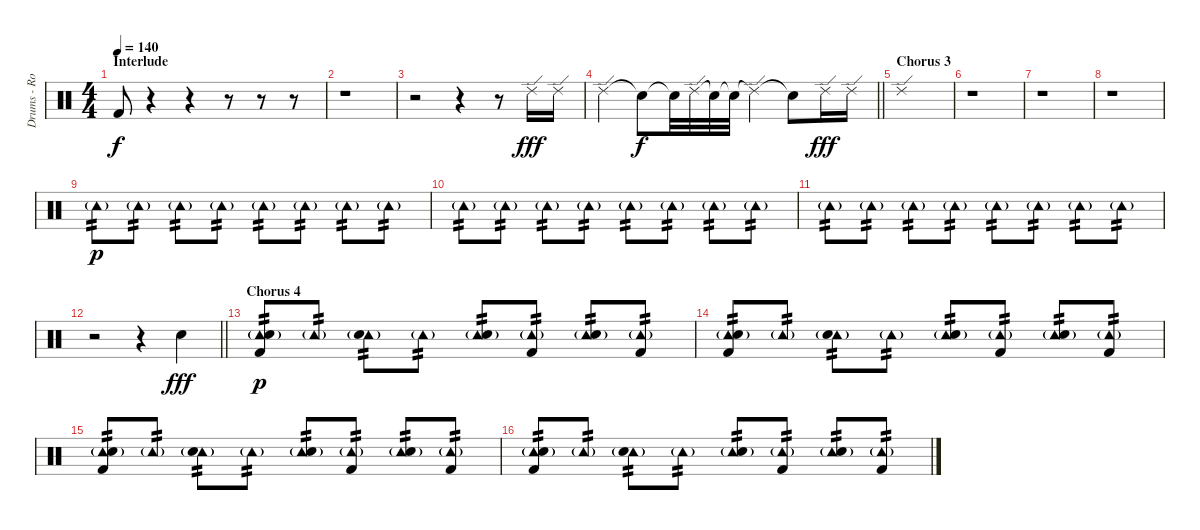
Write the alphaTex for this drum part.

\track ("Drums - Rob Bourdon" "Drums - Ro") {instrument percussion}
\staff {score}
\articulation defaults
\ts (4 4)
\section ("" "Interlude")
\tempo 140
\clef neutral
\ks c "Kick (hit) 2".8{dy f}
r.4 r.4 r.8 r.8 r.8 |
r.1 |
r.2 r.4 r.8 "Ride (edge) 2".16{dy fff} "Ride (edge) 2".16 |
\barLineRight lightlight "Ride (edge) 2".4 "Snare (hit)"{t}.8{dy f} "Snare (hit)"{t}.32{volume 0} "Ride (edge) 2".32{volume 16} "Snare (hit)"{t}.32 "Snare (hit)"{t}.32 "Ride (edge) 2"{t}.4 "Snare (hit)"{t}.8 "Ride (edge) 2".16{dy fff} "Ride (edge) 2".16
|
\section ("" "Chorus 3")
"Ride (edge) 2".1 |
r.1 |
r.1 |
r.1{volume 13} |
"Tambourine (hit)"{g}.8{tp 2 dy p} "Tambourine (hit)"{g}.8{tp 2} "Tambourine (hit)"{g}.8{tp 2} "Tambourine (hit)"{g}.8{tp 2} "Tambourine (hit)"{g}.8{tp 2} "Tambourine (hit)"{g}.8{tp 2} "Tambourine (hit)"{g}.8{tp 2} "Tambourine (hit)"{g}.8{tp 2} |
"Tambourine (hit)"{g}.8{tp 2} "Tambourine (hit)"{g}.8{tp 2} "Tambourine (hit)"{g}.8{tp 2} "Tambourine (hit)"{g}.8{tp 2} "Tambourine (hit)"{g}.8{tp 2} "Tambourine (hit)"{g}.8{tp 2} "Tambourine (hit)"{g}.8{tp 2} "Tambourine (hit)"{g}.8{tp 2} |
"Tambourine (hit)"{g}.8{tp 2} "Tambourine (hit)"{g}.8{tp 2} "Tambourine (hit)"{g}.8{tp 2} "Tambourine (hit)"{g}.8{tp 2} "Tambourine (hit)"{g}.8{tp 2} "Tambourine (hit)"{g}.8{tp 2} "Tambourine (hit)"{g}.8{tp 2} "Tambourine (hit)"{g}.8{tp 2} |
\barLineRight lightlight
r.2 r.4 "Electric Snare (hit)".4{dy fff} |
\section ("" "Chorus 4")
("Tambourine (hit)"{g} "Electric Snare (hit)" "Kick (hit) 2").8{tp 2 dy p} "Tambourine (hit)"{g}.8{tp 2} ("Tambourine (hit)"{g} "Electric Snare (hit)").8{tp 2} "Tambourine (hit)"{g}.8{tp 2} ("Tambourine (hit)"{g} "Electric Snare (hit)").8{tp 2} ("Tambourine (hit)"{g} "Kick (hit) 2").8{tp 2} ("Tambourine (hit)"{g} "Electric Snare (hit)").8{tp 2} ("Tambourine (hit)"{g} "Kick (hit) 2").8{tp 2} |
("Tambourine (hit)"{g} "Electric Snare (hit)" "Kick (hit) 2").8{tp 2} "Tambourine (hit)"{g}.8{tp 2} ("Tambourine (hit)"{g} "Electric Snare (hit)").8{tp 2} "Tambourine (hit)"{g}.8{tp 2} ("Tambourine (hit)"{g} "Electric Snare (hit)").8{tp 2} ("Tambourine (hit)"{g} "Kick (hit) 2").8{tp 2} ("Tambourine (hit)"{g} "Electric Snare (hit)").8{tp 2} ("Tambourine (hit)"{g} "Kick (hit) 2").8{tp 2} |
("Tambourine (hit)"{g} "Electric Snare (hit)" "Kick (hit) 2").8{tp 2} "Tambourine (hit)"{g}.8{tp 2} ("Tambourine (hit)"{g} "Electric Snare (hit)").8{tp 2} "Tambourine (hit)"{g}.8{tp 2} ("Tambourine (hit)"{g} "Electric Snare (hit)").8{tp 2} ("Tambourine (hit)"{g} "Kick (hit) 2").8{tp 2} ("Tambourine (hit)"{g} "Electric Snare (hit)").8{tp 2} ("Tambourine (hit)"{g} "Kick (hit) 2").8{tp 2} |
("Tambourine (hit)"{g} "Electric Snare (hit)" "Kick (hit) 2").8{tp 2} "Tambourine (hit)"{g}.8{tp 2} ("Tambourine (hit)"{g} "Electric Snare (hit)").8{tp 2} "Tambourine (hit)"{g}.8{tp 2} ("Tambourine (hit)"{g} "Electric Snare (hit)").8{tp 2} ("Tambourine (hit)"{g} "Kick (hit) 2").8{tp 2} ("Tambourine (hit)"{g} "Electric Snare (hit)").8{tp 2} ("Tambourine (hit)"{g} "Kick (hit) 2").8{tp 2}
